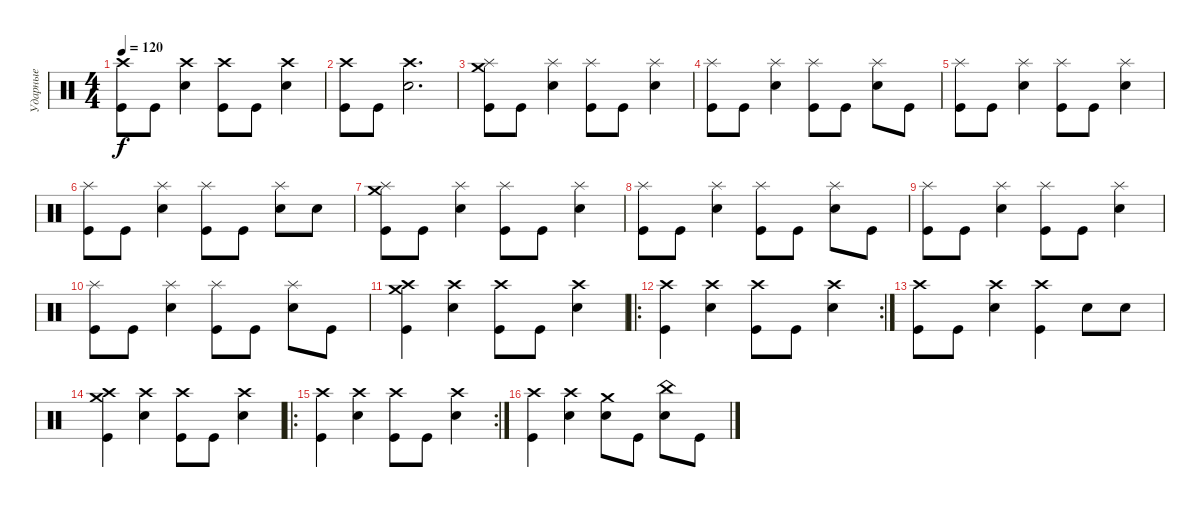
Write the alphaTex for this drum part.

\track ("Ударные" "Ударные") {instrument percussion}
\staff {score}
\articulation defaults
\ts (4 4)
\tempo 120
\clef neutral
\ks c
("Crash high (hit)" "Kick (hit)").8{dy f} "Kick (hit)".8 ("Crash high (hit)" "Snare (hit) 2").4 ("Crash high (hit)" "Kick (hit)").8 "Kick (hit)".8 ("Crash high (hit)" "Snare (hit) 2").4 |
("Crash high (hit)" "Kick (hit)").8 "Kick (hit)".8 ("Crash high (hit)" "Snare (hit) 2").2{d} |
("Splash (hit)" "Crash medium (hit)" "Kick (hit)").8 "Kick (hit)".8 ("Splash (hit)" "Snare (hit) 2").4 ("Splash (hit)" "Kick (hit)").8 "Kick (hit)".8 ("Splash (hit)" "Snare (hit) 2").4 |
("Splash (hit)" "Kick (hit)").8 "Kick (hit)".8 ("Splash (hit)" "Snare (hit) 2").4 ("Splash (hit)" "Kick (hit)").8 "Kick (hit)".8 ("Splash (hit)" "Snare (hit) 2").8 "Kick (hit)".8 |
("Splash (hit)" "Kick (hit)").8 "Kick (hit)".8 ("Splash (hit)" "Snare (hit) 2").4 ("Splash (hit)" "Kick (hit)").8 "Kick (hit)".8 ("Splash (hit)" "Snare (hit) 2").4 |
("Splash (hit)" "Kick (hit)").8 "Kick (hit)".8 ("Splash (hit)" "Snare (hit) 2").4 ("Splash (hit)" "Kick (hit)").8 "Kick (hit)".8 ("Splash (hit)" "Snare (hit) 2").8 "Snare (hit) 2".8 |
("Splash (hit)" "Crash medium (hit)" "Kick (hit)").8 "Kick (hit)".8 ("Splash (hit)" "Snare (hit) 2").4 ("Splash (hit)" "Kick (hit)").8 "Kick (hit)".8 ("Splash (hit)" "Snare (hit) 2").4 |
("Splash (hit)" "Kick (hit)").8 "Kick (hit)".8 ("Splash (hit)" "Snare (hit) 2").4 ("Splash (hit)" "Kick (hit)").8 "Kick (hit)".8 ("Splash (hit)" "Snare (hit) 2").8 "Kick (hit)".8 |
("Splash (hit)" "Kick (hit)").8 "Kick (hit)".8 ("Splash (hit)" "Snare (hit) 2").4 ("Splash (hit)" "Kick (hit)").8 "Kick (hit)".8 ("Splash (hit)" "Snare (hit) 2").4 |
("Splash (hit)" "Kick (hit)").8 "Kick (hit)".8 ("Splash (hit)" "Snare (hit) 2").4 ("Splash (hit)" "Kick (hit)").8 "Kick (hit)".8 ("Splash (hit)" "Snare (hit) 2").8 "Kick (hit)".8 |
("Crash medium (hit)" "Crash high (hit)" "Kick (hit)").4 ("Crash high (hit)" "Snare (hit) 2").4 ("Crash high (hit)" "Kick (hit)").8 "Kick (hit)".8 ("Crash high (hit)" "Snare (hit) 2").4 |
\ro
\rc 2
("Crash high (hit)" "Kick (hit)").4 ("Crash high (hit)" "Snare (hit) 2").4 ("Crash high (hit)" "Kick (hit)").8 "Kick (hit)".8 ("Crash high (hit)" "Snare (hit) 2").4 |
("Crash high (hit)" "Kick (hit)").8 "Kick (hit)".8 ("Crash high (hit)" "Snare (hit) 2").4 ("Crash high (hit)" "Kick (hit)").4 "Snare (hit) 2".8 "Snare (hit) 2".8 |
("Crash medium (hit)" "Crash high (hit)" "Kick (hit)").4 ("Crash high (hit)" "Snare (hit) 2").4 ("Crash high (hit)" "Kick (hit)").8 "Kick (hit)".8 ("Crash high (hit)" "Snare (hit) 2").4 |
\ro
\rc 2
("Crash high (hit)" "Kick (hit)").4 ("Crash high (hit)" "Snare (hit) 2").4 ("Crash high (hit)" "Kick (hit)").8 "Kick (hit)".8 ("Crash high (hit)" "Snare (hit) 2").4 |
("Crash high (hit)" "Kick (hit)").4 ("Crash high (hit)" "Snare (hit) 2").4 ("Crash medium (hit)" "Snare (hit) 2").8 "Kick (hit)".8 ("China (hit)" "Snare (hit) 2").8 "Kick (hit)".8
